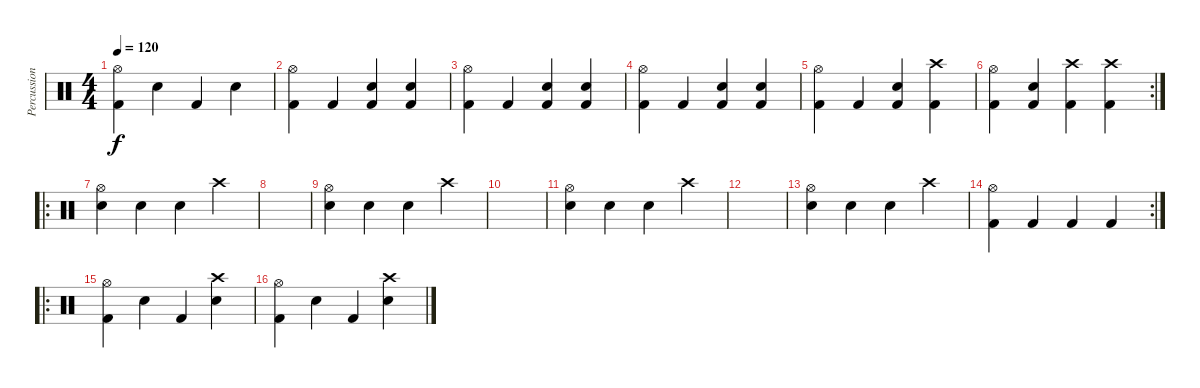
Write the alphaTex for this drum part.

\track ("Percussion" "Percussion") {instrument percussion}
\staff {score}
\articulation defaults
\ts (4 4)
\tempo 120
\clef neutral
\ks c
("Hi-Hat (open)" "Kick (hit) 2").4{dy f} "Electric Snare (hit)".4 "Kick (hit) 2".4 "Electric Snare (hit)".4 |
("Hi-Hat (open)" "Kick (hit) 2").4 "Kick (hit) 2".4 ("Electric Snare (hit)" "Kick (hit) 2").4 ("Electric Snare (hit)" "Kick (hit) 2").4 |
("Hi-Hat (open)" "Kick (hit) 2").4 "Kick (hit) 2".4 ("Electric Snare (hit)" "Kick (hit) 2").4 ("Electric Snare (hit)" "Kick (hit) 2").4 |
("Hi-Hat (open)" "Kick (hit) 2").4 "Kick (hit) 2".4 ("Electric Snare (hit)" "Kick (hit) 2").4 ("Electric Snare (hit)" "Kick (hit) 2").4 |
("Hi-Hat (open)" "Kick (hit) 2").4 "Kick (hit) 2".4 ("Electric Snare (hit)" "Kick (hit) 2").4 ("Crash high (hit)" "Kick (hit) 2").4 |
\rc 2
("Hi-Hat (open)" "Kick (hit) 2").4 ("Electric Snare (hit)" "Kick (hit) 2").4 ("Crash high (hit)" "Kick (hit) 2").4 ("Crash high (hit)" "Kick (hit) 2").4 |
\ro
("Electric Snare (hit)" "Hi-Hat (open)").4 "Electric Snare (hit)".4 "Electric Snare (hit)".4 "Crash high (hit)".4 |
|
("Electric Snare (hit)" "Hi-Hat (open)").4 "Electric Snare (hit)".4 "Electric Snare (hit)".4 "Crash high (hit)".4 |
|
("Electric Snare (hit)" "Hi-Hat (open)").4 "Electric Snare (hit)".4 "Electric Snare (hit)".4 "Crash high (hit)".4 |
|
("Electric Snare (hit)" "Hi-Hat (open)").4 "Electric Snare (hit)".4 "Electric Snare (hit)".4 "Crash high (hit)".4 |
\rc 2
("Hi-Hat (open)" "Kick (hit) 2").4 "Kick (hit) 2".4 "Kick (hit) 2".4 "Kick (hit) 2".4 |
\ro
("Hi-Hat (open)" "Kick (hit) 2").4 "Electric Snare (hit)".4 "Kick (hit) 2".4 ("Crash high (hit)" "Electric Snare (hit)").4 |
("Hi-Hat (open)" "Kick (hit) 2").4 "Electric Snare (hit)".4 "Kick (hit) 2".4 ("Crash high (hit)" "Electric Snare (hit)").4
